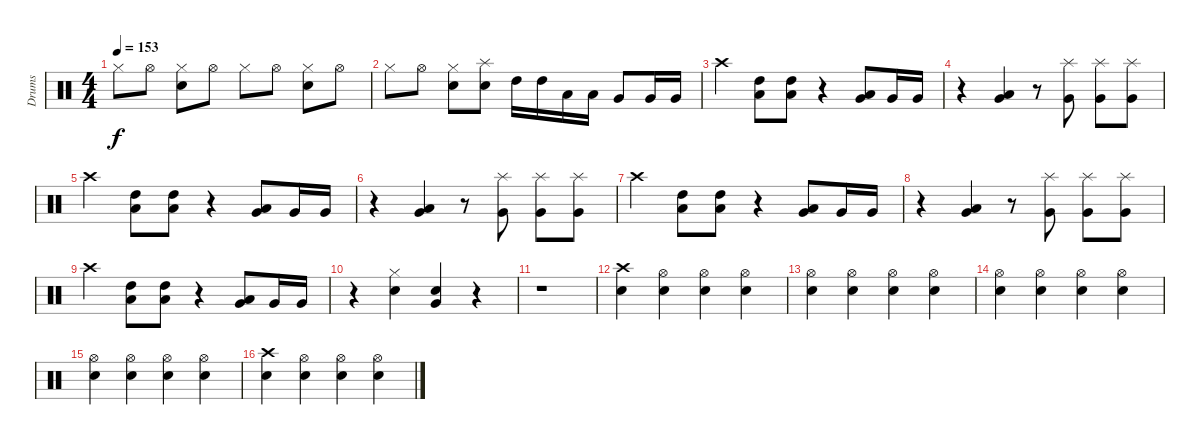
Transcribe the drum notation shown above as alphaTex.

\track ("Drums" "Drums") {instrument percussion}
\staff {score}
\articulation defaults
\ts (4 4)
\tempo 153
\clef neutral
\ks c "Hi-Hat (closed)".8{dy f} "Hi-Hat (open)".8
("Hi-Hat (closed)" "Snare (hit) 2").8 "Hi-Hat (open)".8 "Hi-Hat (closed)".8 "Hi-Hat (open)".8 ("Hi-Hat (closed)" "Snare (hit) 2").8 "Hi-Hat (open)".8 |
"Hi-Hat (closed)".8 "Hi-Hat (open)".8 ("Hi-Hat (closed)" "Snare (hit) 2").8 ("Splash (hit)" "Snare (hit) 2").8 "High Tom (hit)".16 "High Tom (hit)".16 "Low Tom (hit)".16 "Low Tom (hit)".16 "Very Low Tom (hit)".8 "Very Low Tom (hit)".16 "Very Low Tom (hit)".16 |
"Crash high (hit)".4 ("High Tom (hit)" "Low Tom (hit)").8 ("High Tom (hit)" "Low Tom (hit)").8 r.4 ("Low Tom (hit)" "Very Low Tom (hit)").8 "Very Low Tom (hit)".16 "Very Low Tom (hit)".16 |
r.4 ("Low Tom (hit)" "Very Low Tom (hit)").4 r.8 ("Splash (hit)" "Very Low Tom (hit)").8 ("Splash (hit)" "Very Low Tom (hit)").8 ("Splash (hit)" "Very Low Tom (hit)").8 |
"Crash high (hit)".4 ("High Tom (hit)" "Low Tom (hit)").8 ("High Tom (hit)" "Low Tom (hit)").8 r.4 ("Low Tom (hit)" "Very Low Tom (hit)").8 "Very Low Tom (hit)".16 "Very Low Tom (hit)".16 |
r.4 ("Low Tom (hit)" "Very Low Tom (hit)").4 r.8 ("Splash (hit)" "Very Low Tom (hit)").8 ("Splash (hit)" "Very Low Tom (hit)").8 ("Splash (hit)" "Very Low Tom (hit)").8 |
"Crash high (hit)".4 ("High Tom (hit)" "Low Tom (hit)").8 ("High Tom (hit)" "Low Tom (hit)").8 r.4 ("Low Tom (hit)" "Very Low Tom (hit)").8 "Very Low Tom (hit)".16 "Very Low Tom (hit)".16 |
r.4 ("Low Tom (hit)" "Very Low Tom (hit)").4 r.8 ("Splash (hit)" "Very Low Tom (hit)").8 ("Splash (hit)" "Very Low Tom (hit)").8 ("Splash (hit)" "Very Low Tom (hit)").8 |
"Crash high (hit)".4 ("High Tom (hit)" "Low Tom (hit)").8 ("High Tom (hit)" "Low Tom (hit)").8 r.4 ("Low Tom (hit)" "Very Low Tom (hit)").8 "Very Low Tom (hit)".16 "Very Low Tom (hit)".16 |
r.4 ("Hi-Hat (closed)" "Snare (hit) 2").4 ("Snare (hit) 2" "Very Low Tom (hit)").4 r.4 |
r.1 |
("Crash high (hit)" "Snare (hit) 2").4 ("Hi-Hat (open)" "Snare (hit) 2").4 ("Hi-Hat (open)" "Snare (hit) 2").4 ("Hi-Hat (open)" "Snare (hit) 2").4 |
("Hi-Hat (open)" "Snare (hit) 2").4 ("Hi-Hat (open)" "Snare (hit) 2").4 ("Hi-Hat (open)" "Snare (hit) 2").4 ("Hi-Hat (open)" "Snare (hit) 2").4 |
("Hi-Hat (open)" "Snare (hit) 2").4 ("Hi-Hat (open)" "Snare (hit) 2").4 ("Hi-Hat (open)" "Snare (hit) 2").4 ("Hi-Hat (open)" "Snare (hit) 2").4 |
("Hi-Hat (open)" "Snare (hit) 2").4 ("Hi-Hat (open)" "Snare (hit) 2").4 ("Hi-Hat (open)" "Snare (hit) 2").4 ("Hi-Hat (open)" "Snare (hit) 2").4 |
("Crash high (hit)" "Snare (hit) 2").4 ("Hi-Hat (open)" "Snare (hit) 2").4 ("Hi-Hat (open)" "Snare (hit) 2").4 ("Hi-Hat (open)" "Snare (hit) 2").4
